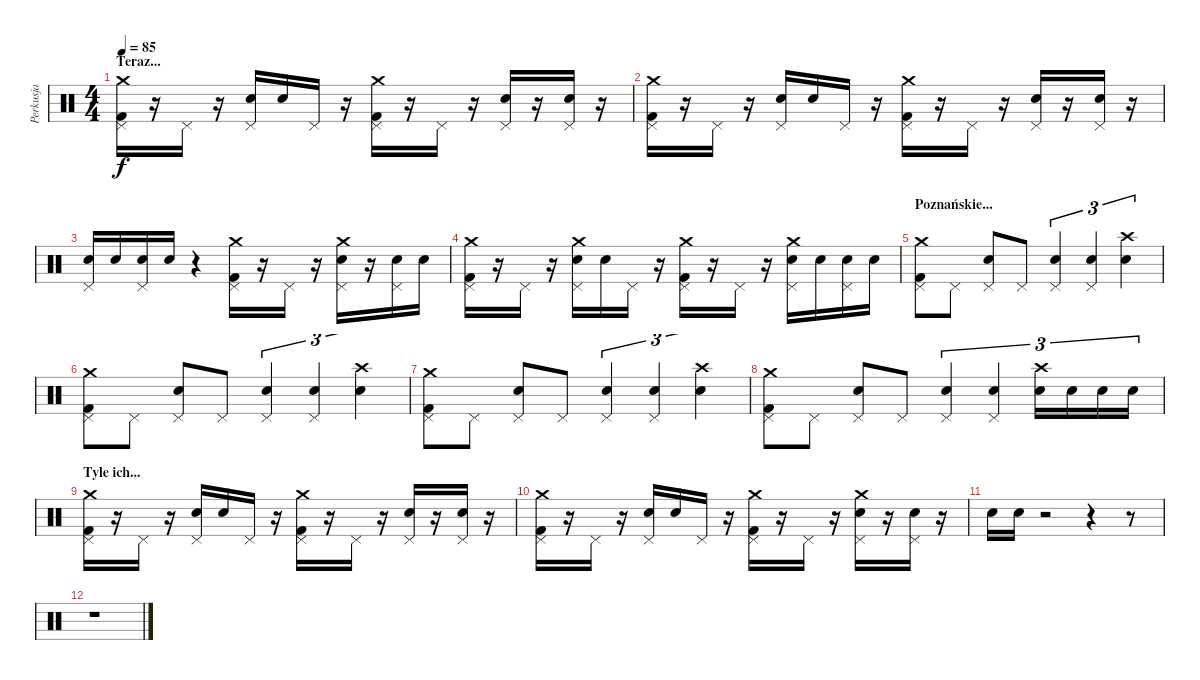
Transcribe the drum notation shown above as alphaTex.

\track ("Perkusja" "Perkusja") {instrument percussion}
\staff {score}
\articulation defaults
\ts (4 4)
\section ("" "Teraz...")
\tempo 85
\clef neutral
\ks c
("Crash medium (hit)" "Kick (hit) 2" "Pedal Hi-Hat (hit)").16{dy f} r.16 "Pedal Hi-Hat (hit)".16 r.16 ("Snare (hit) 2" "Pedal Hi-Hat (hit)").16 "Snare (hit) 2".16 "Pedal Hi-Hat (hit)".16 r.16 ("Crash medium (hit)" "Kick (hit) 2" "Pedal Hi-Hat (hit)").16 r.16 "Pedal Hi-Hat (hit)".16 r.16 ("Snare (hit) 2" "Pedal Hi-Hat (hit)").16 r.16 ("Snare (hit) 2" "Pedal Hi-Hat (hit)").16 r.16 |
("Crash medium (hit)" "Kick (hit) 2" "Pedal Hi-Hat (hit)").16 r.16 "Pedal Hi-Hat (hit)".16 r.16 ("Snare (hit) 2" "Pedal Hi-Hat (hit)").16 "Snare (hit) 2".16 "Pedal Hi-Hat (hit)".16 r.16 ("Crash medium (hit)" "Kick (hit) 2" "Pedal Hi-Hat (hit)").16 r.16 "Pedal Hi-Hat (hit)".16 r.16 ("Snare (hit) 2" "Pedal Hi-Hat (hit)").16 r.16 ("Snare (hit) 2" "Pedal Hi-Hat (hit)").16 r.16 |
("Snare (hit) 2" "Pedal Hi-Hat (hit)").16 "Snare (hit) 2".16 ("Snare (hit) 2" "Pedal Hi-Hat (hit)").16 "Snare (hit) 2".16 r.4 ("Crash medium (hit)" "Kick (hit) 2" "Pedal Hi-Hat (hit)").16 r.16 "Pedal Hi-Hat (hit)".16 r.16 ("Crash medium (hit)" "Snare (hit) 2" "Pedal Hi-Hat (hit)").16 r.16 ("Snare (hit) 2" "Pedal Hi-Hat (hit)").16 "Snare (hit) 2".16 |
("Crash medium (hit)" "Kick (hit) 2" "Pedal Hi-Hat (hit)").16 r.16 "Pedal Hi-Hat (hit)".16 r.16 ("Crash medium (hit)" "Snare (hit) 2" "Pedal Hi-Hat (hit)").16 "Snare (hit) 2".16 "Pedal Hi-Hat (hit)".16 r.16 ("Crash medium (hit)" "Kick (hit) 2" "Pedal Hi-Hat (hit)").16 r.16 "Pedal Hi-Hat (hit)".16 r.16 ("Crash medium (hit)" "Snare (hit) 2" "Pedal Hi-Hat (hit)").16 "Snare (hit) 2".16 ("Snare (hit) 2" "Pedal Hi-Hat (hit)").16 "Snare (hit) 2".16 |
\section ("" "Poznańskie...")
("Crash medium (hit)" "Kick (hit) 2" "Pedal Hi-Hat (hit)").8 "Pedal Hi-Hat (hit)".8 ("Snare (hit) 2" "Pedal Hi-Hat (hit)").8 "Pedal Hi-Hat (hit)".8 ("Snare (hit) 2" "Pedal Hi-Hat (hit)").4{tu (3 2)} ("Snare (hit) 2" "Pedal Hi-Hat (hit)").4{tu (3 2)} ("Snare (hit) 2" "Crash high (hit)").4{tu (3 2)} |
("Crash medium (hit)" "Kick (hit) 2" "Pedal Hi-Hat (hit)").8 "Pedal Hi-Hat (hit)".8 ("Snare (hit) 2" "Pedal Hi-Hat (hit)").8 "Pedal Hi-Hat (hit)".8 ("Snare (hit) 2" "Pedal Hi-Hat (hit)").4{tu (3 2)} ("Snare (hit) 2" "Pedal Hi-Hat (hit)").4{tu (3 2)} ("Snare (hit) 2" "Crash high (hit)").4{tu (3 2)} |
("Crash medium (hit)" "Kick (hit) 2" "Pedal Hi-Hat (hit)").8 "Pedal Hi-Hat (hit)".8 ("Snare (hit) 2" "Pedal Hi-Hat (hit)").8 "Pedal Hi-Hat (hit)".8 ("Snare (hit) 2" "Pedal Hi-Hat (hit)").4{tu (3 2)} ("Snare (hit) 2" "Pedal Hi-Hat (hit)").4{tu (3 2)} ("Snare (hit) 2" "Crash high (hit)").4{tu (3 2)} |
("Crash medium (hit)" "Kick (hit) 2" "Pedal Hi-Hat (hit)").8 "Pedal Hi-Hat (hit)".8 ("Snare (hit) 2" "Pedal Hi-Hat (hit)").8 "Pedal Hi-Hat (hit)".8 ("Snare (hit) 2" "Pedal Hi-Hat (hit)").4{tu (3 2)} ("Snare (hit) 2" "Pedal Hi-Hat (hit)").4{tu (3 2)} ("Snare (hit) 2" "Crash high (hit)").16{tu (3 2)} "Snare (hit) 2".16{tu (3 2)} "Snare (hit) 2".16{tu (3 2)} "Snare (hit) 2".16{tu (3 2)} |
\section ("" "Tyle ich...")
("Crash medium (hit)" "Kick (hit) 2" "Pedal Hi-Hat (hit)").16 r.16 "Pedal Hi-Hat (hit)".16 r.16 ("Snare (hit) 2" "Pedal Hi-Hat (hit)").16 "Snare (hit) 2".16 "Pedal Hi-Hat (hit)".16 r.16 ("Crash medium (hit)" "Kick (hit) 2" "Pedal Hi-Hat (hit)").16 r.16 "Pedal Hi-Hat (hit)".16 r.16 ("Snare (hit) 2" "Pedal Hi-Hat (hit)").16 r.16 ("Snare (hit) 2" "Pedal Hi-Hat (hit)").16 r.16 |
("Crash medium (hit)" "Kick (hit) 2" "Pedal Hi-Hat (hit)").16 r.16 "Pedal Hi-Hat (hit)".16 r.16 ("Snare (hit) 2" "Pedal Hi-Hat (hit)").16 "Snare (hit) 2".16 "Pedal Hi-Hat (hit)".16 r.16 ("Crash medium (hit)" "Kick (hit) 2" "Pedal Hi-Hat (hit)").16 r.16 "Pedal Hi-Hat (hit)".16 r.16 ("Crash medium (hit)" "Snare (hit) 2" "Pedal Hi-Hat (hit)").16 r.16 ("Snare (hit) 2" "Pedal Hi-Hat (hit)").16 r.16 |
"Snare (hit) 2".16 "Snare (hit) 2".16 r.2 r.4 r.8 |
r.1
